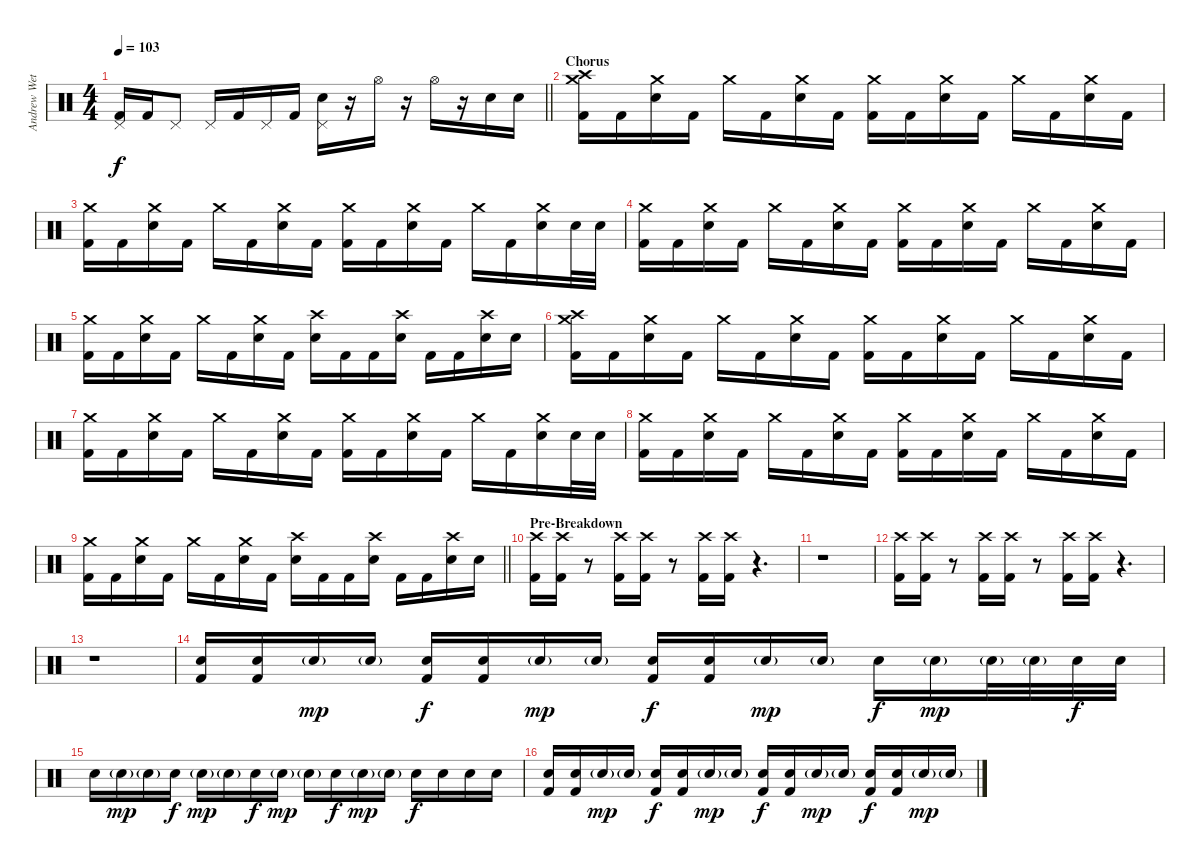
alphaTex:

\track ("Andrew Wetzel - Drums" "Andrew Wet") {instrument percussion}
\staff {score}
\articulation defaults
\ts (4 4)
\tempo 103
\clef neutral
\barLineRight lightlight
\ks c
("Pedal Hi-Hat (hit)" "Kick (hit) 2").16{dy f} "Kick (hit) 2".16 "Pedal Hi-Hat (hit)".8 "Pedal Hi-Hat (hit)".16 "Kick (hit) 2".16 "Pedal Hi-Hat (hit)".16 "Kick (hit) 2".16 ("Pedal Hi-Hat (hit)" "Electric Snare (hit)").16 r.16 "Hi-Hat (open)".16 r.16 "Hi-Hat (open)".16 r.16 "Electric Snare (hit)".16 "Electric Snare (hit)".16 |
\section ("" "Chorus")
("Crash high (hit)" "Crash medium (hit)" "Kick (hit) 2").16 "Kick (hit) 2".16 ("Crash medium (hit)" "Electric Snare (hit)").16 "Kick (hit) 2".16 "Crash medium (hit)".16 "Kick (hit) 2".16 ("Crash medium (hit)" "Electric Snare (hit)").16 "Kick (hit) 2".16 ("Crash medium (hit)" "Kick (hit) 2").16 "Kick (hit) 2".16 ("Crash medium (hit)" "Electric Snare (hit)").16 "Kick (hit) 2".16 "Crash medium (hit)".16 "Kick (hit) 2".16 ("Crash medium (hit)" "Electric Snare (hit)").16 "Kick (hit) 2".16 |
("Crash medium (hit)" "Kick (hit) 2").16 "Kick (hit) 2".16 ("Crash medium (hit)" "Electric Snare (hit)").16 "Kick (hit) 2".16 "Crash medium (hit)".16 "Kick (hit) 2".16 ("Crash medium (hit)" "Electric Snare (hit)").16 "Kick (hit) 2".16 ("Crash medium (hit)" "Kick (hit) 2").16 "Kick (hit) 2".16 ("Crash medium (hit)" "Electric Snare (hit)").16 "Kick (hit) 2".16 "Crash medium (hit)".16 "Kick (hit) 2".16 ("Crash medium (hit)" "Electric Snare (hit)").16 "Electric Snare (hit)".32 "Electric Snare (hit)".32 |
("Crash medium (hit)" "Kick (hit) 2").16 "Kick (hit) 2".16 ("Crash medium (hit)" "Electric Snare (hit)").16 "Kick (hit) 2".16 "Crash medium (hit)".16 "Kick (hit) 2".16 ("Crash medium (hit)" "Electric Snare (hit)").16 "Kick (hit) 2".16 ("Crash medium (hit)" "Kick (hit) 2").16 "Kick (hit) 2".16 ("Crash medium (hit)" "Electric Snare (hit)").16 "Kick (hit) 2".16 "Crash medium (hit)".16 "Kick (hit) 2".16 ("Crash medium (hit)" "Electric Snare (hit)").16 "Kick (hit) 2".16 |
("Crash medium (hit)" "Kick (hit) 2").16 "Kick (hit) 2".16 ("Crash medium (hit)" "Electric Snare (hit)").16 "Kick (hit) 2".16 "Crash medium (hit)".16 "Kick (hit) 2".16 ("Crash medium (hit)" "Electric Snare (hit)").16 "Kick (hit) 2".16 ("Crash high (hit)" "Electric Snare (hit)").16 "Kick (hit) 2".16 "Kick (hit) 2".16 ("Crash high (hit)" "Electric Snare (hit)").16 "Kick (hit) 2".16 "Kick (hit) 2".16 ("Crash high (hit)" "Electric Snare (hit)").16 "Electric Snare (hit)".16 |
("Crash high (hit)" "Crash medium (hit)" "Kick (hit) 2").16 "Kick (hit) 2".16 ("Crash medium (hit)" "Electric Snare (hit)").16 "Kick (hit) 2".16 "Crash medium (hit)".16 "Kick (hit) 2".16 ("Crash medium (hit)" "Electric Snare (hit)").16 "Kick (hit) 2".16 ("Crash medium (hit)" "Kick (hit) 2").16 "Kick (hit) 2".16 ("Crash medium (hit)" "Electric Snare (hit)").16 "Kick (hit) 2".16 "Crash medium (hit)".16 "Kick (hit) 2".16 ("Crash medium (hit)" "Electric Snare (hit)").16 "Kick (hit) 2".16 |
("Crash medium (hit)" "Kick (hit) 2").16 "Kick (hit) 2".16 ("Crash medium (hit)" "Electric Snare (hit)").16 "Kick (hit) 2".16 "Crash medium (hit)".16 "Kick (hit) 2".16 ("Crash medium (hit)" "Electric Snare (hit)").16 "Kick (hit) 2".16 ("Crash medium (hit)" "Kick (hit) 2").16 "Kick (hit) 2".16 ("Crash medium (hit)" "Electric Snare (hit)").16 "Kick (hit) 2".16 "Crash medium (hit)".16 "Kick (hit) 2".16 ("Crash medium (hit)" "Electric Snare (hit)").16 "Electric Snare (hit)".32 "Electric Snare (hit)".32 |
("Crash medium (hit)" "Kick (hit) 2").16 "Kick (hit) 2".16 ("Crash medium (hit)" "Electric Snare (hit)").16 "Kick (hit) 2".16 "Crash medium (hit)".16 "Kick (hit) 2".16 ("Crash medium (hit)" "Electric Snare (hit)").16 "Kick (hit) 2".16 ("Crash medium (hit)" "Kick (hit) 2").16 "Kick (hit) 2".16 ("Crash medium (hit)" "Electric Snare (hit)").16 "Kick (hit) 2".16 "Crash medium (hit)".16 "Kick (hit) 2".16 ("Crash medium (hit)" "Electric Snare (hit)").16 "Kick (hit) 2".16 |
\barLineRight lightlight
("Crash medium (hit)" "Kick (hit) 2").16 "Kick (hit) 2".16 ("Crash medium (hit)" "Electric Snare (hit)").16 "Kick (hit) 2".16 "Crash medium (hit)".16 "Kick (hit) 2".16 ("Crash medium (hit)" "Electric Snare (hit)").16 "Kick (hit) 2".16 ("Crash high (hit)" "Electric Snare (hit)").16 "Kick (hit) 2".16 "Kick (hit) 2".16 ("Crash high (hit)" "Electric Snare (hit)").16 "Kick (hit) 2".16 "Kick (hit) 2".16 ("Crash high (hit)" "Electric Snare (hit)").16 "Electric Snare (hit)".16 |
\section ("" "Pre-Breakdown")
("Crash high (hit)" "Kick (hit) 2").16 ("Crash high (hit)" "Kick (hit) 2").16 r.8 ("Crash high (hit)" "Kick (hit) 2").16 ("Crash high (hit)" "Kick (hit) 2").16 r.8 ("Crash high (hit)" "Kick (hit) 2").16 ("Crash high (hit)" "Kick (hit) 2").16 r.4{d} |
r.1 |
("Crash high (hit)" "Kick (hit) 2").16 ("Crash high (hit)" "Kick (hit) 2").16 r.8 ("Crash high (hit)" "Kick (hit) 2").16 ("Crash high (hit)" "Kick (hit) 2").16 r.8 ("Crash high (hit)" "Kick (hit) 2").16 ("Crash high (hit)" "Kick (hit) 2").16 r.4{d} |
r.1 |
("Electric Snare (hit)" "Kick (hit) 2").16 ("Electric Snare (hit)" "Kick (hit) 2").16 "Electric Snare (hit)"{g}.16{dy mp} "Electric Snare (hit)"{g}.16 ("Electric Snare (hit)" "Kick (hit) 2").16{dy f} ("Electric Snare (hit)" "Kick (hit) 2").16 "Electric Snare (hit)"{g}.16{dy mp} "Electric Snare (hit)"{g}.16 ("Electric Snare (hit)" "Kick (hit) 2").16{dy f} ("Electric Snare (hit)" "Kick (hit) 2").16 "Electric Snare (hit)"{g}.16{dy mp} "Electric Snare (hit)"{g}.16 "Electric Snare (hit)".16{dy f} "Electric Snare (hit)"{g}.16{dy mp} "Electric Snare (hit)"{g}.32 "Electric Snare (hit)"{g}.32 "Electric Snare (hit)".32{dy f} "Electric Snare (hit)".32 |
"Electric Snare (hit)".16 "Electric Snare (hit)"{g}.16{dy mp} "Electric Snare (hit)"{g}.16 "Electric Snare (hit)".16{dy f} "Electric Snare (hit)"{g}.16{dy mp} "Electric Snare (hit)"{g}.16 "Electric Snare (hit)".16{dy f} "Electric Snare (hit)"{g}.16{dy mp} "Electric Snare (hit)"{g}.16 "Electric Snare (hit)".16{dy f} "Electric Snare (hit)"{g}.16{dy mp} "Electric Snare (hit)"{g}.16 "Electric Snare (hit)".16{dy f} "Electric Snare (hit)".16 "Electric Snare (hit)".16 "Electric Snare (hit)".16 |
("Electric Snare (hit)" "Kick (hit) 2").16 ("Electric Snare (hit)" "Kick (hit) 2").16 "Electric Snare (hit)"{g}.16{dy mp} "Electric Snare (hit)"{g}.16 ("Electric Snare (hit)" "Kick (hit) 2").16{dy f} ("Electric Snare (hit)" "Kick (hit) 2").16 "Electric Snare (hit)"{g}.16{dy mp} "Electric Snare (hit)"{g}.16 ("Electric Snare (hit)" "Kick (hit) 2").16{dy f} ("Electric Snare (hit)" "Kick (hit) 2").16 "Electric Snare (hit)"{g}.16{dy mp} "Electric Snare (hit)"{g}.16 ("Electric Snare (hit)" "Kick (hit) 2").16{dy f} ("Electric Snare (hit)" "Kick (hit) 2").16 "Electric Snare (hit)"{g}.16{dy mp} "Electric Snare (hit)"{g}.16
